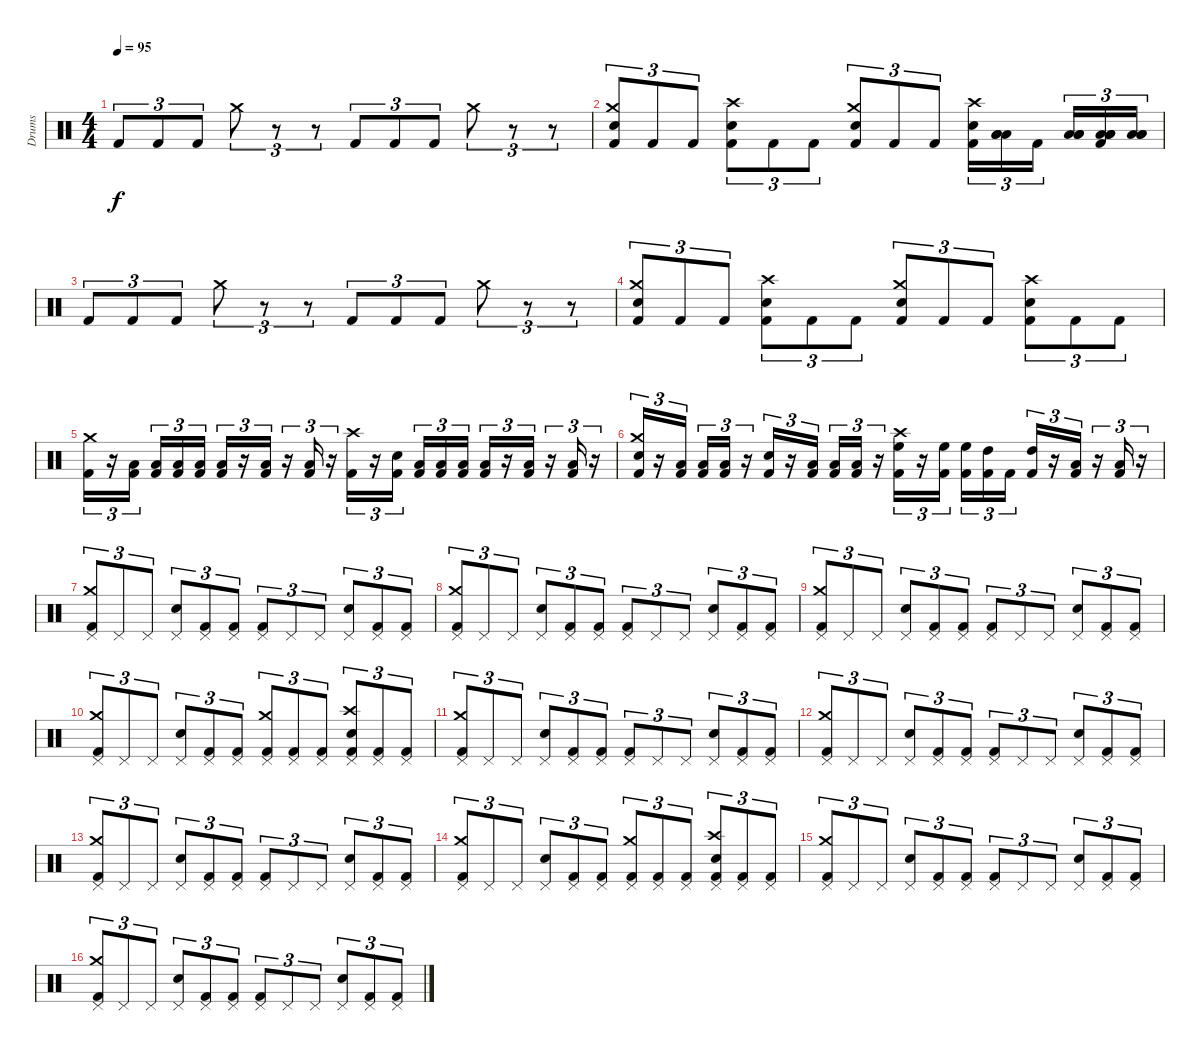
\track ("Drums" "Drums") {instrument percussion}
\staff {score}
\articulation defaults
\ts (4 4)
\tempo 95
\clef neutral
\ks c "Kick (hit) 2".8{tu (3 2) dy f} "Kick (hit) 2".8{tu (3 2)} "Kick (hit) 2".8{tu (3 2)} "Crash medium (hit)".8{tu (3 2)}
r.8{tu (3 2)} r.8{tu (3 2)} "Kick (hit) 2".8{tu (3 2)} "Kick (hit) 2".8{tu (3 2)} "Kick (hit) 2".8{tu (3 2)} "Crash medium (hit)".8{tu (3 2)} r.8{tu (3 2)} r.8{tu (3 2)} |
("Kick (hit) 2" "Crash medium (hit)" "Snare (hit) 2").8{tu (3 2)} "Kick (hit) 2".8{tu (3 2)} "Kick (hit) 2".8{tu (3 2)} ("Kick (hit) 2" "Crash high (hit)" "Snare (hit) 2").8{tu (3 2)} "Kick (hit) 2".8{tu (3 2)} "Kick (hit) 2".8{tu (3 2)} ("Kick (hit) 2" "Crash medium (hit)" "Snare (hit) 2").8{tu (3 2)} "Kick (hit) 2".8{tu (3 2)} "Kick (hit) 2".8{tu (3 2)} ("Kick (hit) 2" "Crash high (hit)" "Snare (hit) 2").16{tu (3 2)} ("Low Tom (hit)" "Low Tom (hit)" "Low Tom (hit)").16{tu (3 2)} "Kick (hit) 2".16{tu (3 2)} ("Low Tom (hit)" "Low Tom (hit)" "Low Tom (hit)").16{tu (3 2)} ("Kick (hit) 2" "Low Tom (hit)" "Low Tom (hit)" "Low Tom (hit)").16{tu (3 2)} ("Low Floor Tom (hit)" "Low Floor Tom (hit)" "Low Floor Tom (hit)").16{tu (3 2)} |
"Kick (hit) 2".8{tu (3 2)} "Kick (hit) 2".8{tu (3 2)} "Kick (hit) 2".8{tu (3 2)} "Crash medium (hit)".8{tu (3 2)} r.8{tu (3 2)} r.8{tu (3 2)} "Kick (hit) 2".8{tu (3 2)} "Kick (hit) 2".8{tu (3 2)} "Kick (hit) 2".8{tu (3 2)} "Crash medium (hit)".8{tu (3 2)} r.8{tu (3 2)} r.8{tu (3 2)} |
("Kick (hit) 2" "Crash medium (hit)" "Snare (hit) 2").8{tu (3 2)} "Kick (hit) 2".8{tu (3 2)} "Kick (hit) 2".8{tu (3 2)} ("Kick (hit) 2" "Crash high (hit)" "Snare (hit) 2").8{tu (3 2)} "Kick (hit) 2".8{tu (3 2)} "Kick (hit) 2".8{tu (3 2)} ("Kick (hit) 2" "Crash medium (hit)" "Snare (hit) 2").8{tu (3 2)} "Kick (hit) 2".8{tu (3 2)} "Kick (hit) 2".8{tu (3 2)} ("Kick (hit) 2" "Crash high (hit)" "Snare (hit) 2").8{tu (3 2)} "Kick (hit) 2".8{tu (3 2)} "Kick (hit) 2".8{tu (3 2)} |
("Kick (hit) 2" "Crash medium (hit)").16{tu (3 2)} r.16{tu (3 2)} ("Kick (hit) 2" "Low Tom (hit)").16{tu (3 2)} ("Kick (hit) 2" "Low Tom (hit)").16{tu (3 2)} ("Kick (hit) 2" "Low Tom (hit)").16{tu (3 2)} ("Kick (hit) 2" "Low Tom (hit)").16{tu (3 2)} ("Kick (hit) 2" "Low Floor Tom (hit)").16{tu (3 2)} r.16{tu (3 2)} ("Kick (hit) 2" "Low Floor Tom (hit)").16{tu (3 2)} r.16{tu (3 2)} ("Kick (hit) 2" "Low Floor Tom (hit)").16{tu (3 2)} r.16{tu (3 2)} ("Kick (hit) 2" "Crash high (hit)").16{tu (3 2)} r.16{tu (3 2)} ("Kick (hit) 2" "Snare (hit) 2").16{tu (3 2)} ("Kick (hit) 2" "Low Tom (hit)").16{tu (3 2)} ("Kick (hit) 2" "Low Tom (hit)").16{tu (3 2)} ("Kick (hit) 2" "Low Tom (hit)").16{tu (3 2)} ("Kick (hit) 2" "Low Floor Tom (hit)").16{tu (3 2)} r.16{tu (3 2)} ("Kick (hit) 2" "Low Floor Tom (hit)").16{tu (3 2)} r.16{tu (3 2)} ("Kick (hit) 2" "Low Floor Tom (hit)").16{tu (3 2)} r.16{tu (3 2)} |
("Kick (hit) 2" "Crash medium (hit)" "Snare (hit) 2").16{tu (3 2)} r.16{tu (3 2)} ("Kick (hit) 2" "Low Tom (hit)").16{tu (3 2)} ("Kick (hit) 2" "Low Tom (hit)").16{tu (3 2)} ("Kick (hit) 2" "Low Floor Tom (hit)").16{tu (3 2)} r.16{tu (3 2)} ("Kick (hit) 2" "Snare (hit) 2").16{tu (3 2)} r.16{tu (3 2)} ("Kick (hit) 2" "Low Tom (hit)").16{tu (3 2)} ("Kick (hit) 2" "Low Tom (hit)").16{tu (3 2)} ("Kick (hit) 2" "Low Floor Tom (hit)").16{tu (3 2)} r.16{tu (3 2)} ("Kick (hit) 2" "Crash high (hit)" "High Floor Tom (hit)").16{tu (3 2)} r.16{tu (3 2)} ("Kick (hit) 2" "High Floor Tom (hit)").16{tu (3 2)} ("Kick (hit) 2" "High Floor Tom (hit)").16{tu (3 2)} ("Kick (hit) 2" "High Tom (hit)").16{tu (3 2)} "Kick (hit) 2".16{tu (3 2)} ("Kick (hit) 2" "High Tom (hit)").16{tu (3 2)} r.16{tu (3 2)} ("Kick (hit) 2" "Low Floor Tom (hit)").16{tu (3 2)} r.16{tu (3 2)} ("Kick (hit) 2" "Low Floor Tom (hit)").16{tu (3 2)} r.16{tu (3 2)} |
("Kick (hit) 2" "Crash medium (hit)" "Pedal Hi-Hat (hit)").8{tu (3 2)} "Pedal Hi-Hat (hit)".8{tu (3 2)} "Pedal Hi-Hat (hit)".8{tu (3 2)} ("Snare (hit) 2" "Pedal Hi-Hat (hit)").8{tu (3 2)} ("Kick (hit) 2" "Pedal Hi-Hat (hit)").8{tu (3 2)} ("Kick (hit) 2" "Pedal Hi-Hat (hit)").8{tu (3 2)} ("Kick (hit) 2" "Pedal Hi-Hat (hit)").8{tu (3 2)} "Pedal Hi-Hat (hit)".8{tu (3 2)} "Pedal Hi-Hat (hit)".8{tu (3 2)} ("Snare (hit) 2" "Pedal Hi-Hat (hit)").8{tu (3 2)} ("Kick (hit) 2" "Pedal Hi-Hat (hit)").8{tu (3 2)} ("Kick (hit) 2" "Pedal Hi-Hat (hit)").8{tu (3 2)} |
("Kick (hit) 2" "Crash medium (hit)" "Pedal Hi-Hat (hit)").8{tu (3 2)} "Pedal Hi-Hat (hit)".8{tu (3 2)} "Pedal Hi-Hat (hit)".8{tu (3 2)} ("Snare (hit) 2" "Pedal Hi-Hat (hit)").8{tu (3 2)} ("Kick (hit) 2" "Pedal Hi-Hat (hit)").8{tu (3 2)} ("Kick (hit) 2" "Pedal Hi-Hat (hit)").8{tu (3 2)} ("Kick (hit) 2" "Pedal Hi-Hat (hit)").8{tu (3 2)} "Pedal Hi-Hat (hit)".8{tu (3 2)} "Pedal Hi-Hat (hit)".8{tu (3 2)} ("Snare (hit) 2" "Pedal Hi-Hat (hit)").8{tu (3 2)} ("Kick (hit) 2" "Pedal Hi-Hat (hit)").8{tu (3 2)} ("Kick (hit) 2" "Pedal Hi-Hat (hit)").8{tu (3 2)} |
("Kick (hit) 2" "Crash medium (hit)" "Pedal Hi-Hat (hit)").8{tu (3 2)} "Pedal Hi-Hat (hit)".8{tu (3 2)} "Pedal Hi-Hat (hit)".8{tu (3 2)} ("Snare (hit) 2" "Pedal Hi-Hat (hit)").8{tu (3 2)} ("Kick (hit) 2" "Pedal Hi-Hat (hit)").8{tu (3 2)} ("Kick (hit) 2" "Pedal Hi-Hat (hit)").8{tu (3 2)} ("Kick (hit) 2" "Pedal Hi-Hat (hit)").8{tu (3 2)} "Pedal Hi-Hat (hit)".8{tu (3 2)} "Pedal Hi-Hat (hit)".8{tu (3 2)} ("Snare (hit) 2" "Pedal Hi-Hat (hit)").8{tu (3 2)} ("Kick (hit) 2" "Pedal Hi-Hat (hit)").8{tu (3 2)} ("Kick (hit) 2" "Pedal Hi-Hat (hit)").8{tu (3 2)} |
("Kick (hit) 2" "Crash medium (hit)" "Pedal Hi-Hat (hit)").8{tu (3 2)} "Pedal Hi-Hat (hit)".8{tu (3 2)} "Pedal Hi-Hat (hit)".8{tu (3 2)} ("Snare (hit) 2" "Pedal Hi-Hat (hit)").8{tu (3 2)} ("Kick (hit) 2" "Pedal Hi-Hat (hit)").8{tu (3 2)} ("Kick (hit) 2" "Pedal Hi-Hat (hit)").8{tu (3 2)} ("Kick (hit) 2" "Crash medium (hit)" "Pedal Hi-Hat (hit)").8{tu (3 2)} ("Kick (hit) 2" "Pedal Hi-Hat (hit)").8{tu (3 2)} ("Kick (hit) 2" "Pedal Hi-Hat (hit)").8{tu (3 2)} ("Kick (hit) 2" "Crash high (hit)" "Snare (hit) 2" "Pedal Hi-Hat (hit)").8{tu (3 2)} ("Kick (hit) 2" "Pedal Hi-Hat (hit)").8{tu (3 2)} ("Kick (hit) 2" "Pedal Hi-Hat (hit)").8{tu (3 2)} |
("Kick (hit) 2" "Crash medium (hit)" "Pedal Hi-Hat (hit)").8{tu (3 2)} "Pedal Hi-Hat (hit)".8{tu (3 2)} "Pedal Hi-Hat (hit)".8{tu (3 2)} ("Snare (hit) 2" "Pedal Hi-Hat (hit)").8{tu (3 2)} ("Kick (hit) 2" "Pedal Hi-Hat (hit)").8{tu (3 2)} ("Kick (hit) 2" "Pedal Hi-Hat (hit)").8{tu (3 2)} ("Kick (hit) 2" "Pedal Hi-Hat (hit)").8{tu (3 2)} "Pedal Hi-Hat (hit)".8{tu (3 2)} "Pedal Hi-Hat (hit)".8{tu (3 2)} ("Snare (hit) 2" "Pedal Hi-Hat (hit)").8{tu (3 2)} ("Kick (hit) 2" "Pedal Hi-Hat (hit)").8{tu (3 2)} ("Kick (hit) 2" "Pedal Hi-Hat (hit)").8{tu (3 2)} |
("Kick (hit) 2" "Crash medium (hit)" "Pedal Hi-Hat (hit)").8{tu (3 2)} "Pedal Hi-Hat (hit)".8{tu (3 2)} "Pedal Hi-Hat (hit)".8{tu (3 2)} ("Snare (hit) 2" "Pedal Hi-Hat (hit)").8{tu (3 2)} ("Kick (hit) 2" "Pedal Hi-Hat (hit)").8{tu (3 2)} ("Kick (hit) 2" "Pedal Hi-Hat (hit)").8{tu (3 2)} ("Kick (hit) 2" "Pedal Hi-Hat (hit)").8{tu (3 2)} "Pedal Hi-Hat (hit)".8{tu (3 2)} "Pedal Hi-Hat (hit)".8{tu (3 2)} ("Snare (hit) 2" "Pedal Hi-Hat (hit)").8{tu (3 2)} ("Kick (hit) 2" "Pedal Hi-Hat (hit)").8{tu (3 2)} ("Kick (hit) 2" "Pedal Hi-Hat (hit)").8{tu (3 2)} |
("Kick (hit) 2" "Crash medium (hit)" "Pedal Hi-Hat (hit)").8{tu (3 2)} "Pedal Hi-Hat (hit)".8{tu (3 2)} "Pedal Hi-Hat (hit)".8{tu (3 2)} ("Snare (hit) 2" "Pedal Hi-Hat (hit)").8{tu (3 2)} ("Kick (hit) 2" "Pedal Hi-Hat (hit)").8{tu (3 2)} ("Kick (hit) 2" "Pedal Hi-Hat (hit)").8{tu (3 2)} ("Kick (hit) 2" "Pedal Hi-Hat (hit)").8{tu (3 2)} "Pedal Hi-Hat (hit)".8{tu (3 2)} "Pedal Hi-Hat (hit)".8{tu (3 2)} ("Snare (hit) 2" "Pedal Hi-Hat (hit)").8{tu (3 2)} ("Kick (hit) 2" "Pedal Hi-Hat (hit)").8{tu (3 2)} ("Kick (hit) 2" "Pedal Hi-Hat (hit)").8{tu (3 2)} |
("Kick (hit) 2" "Crash medium (hit)" "Pedal Hi-Hat (hit)").8{tu (3 2)} "Pedal Hi-Hat (hit)".8{tu (3 2)} "Pedal Hi-Hat (hit)".8{tu (3 2)} ("Snare (hit) 2" "Pedal Hi-Hat (hit)").8{tu (3 2)} ("Kick (hit) 2" "Pedal Hi-Hat (hit)").8{tu (3 2)} ("Kick (hit) 2" "Pedal Hi-Hat (hit)").8{tu (3 2)} ("Kick (hit) 2" "Crash medium (hit)" "Pedal Hi-Hat (hit)").8{tu (3 2)} ("Kick (hit) 2" "Pedal Hi-Hat (hit)").8{tu (3 2)} ("Kick (hit) 2" "Pedal Hi-Hat (hit)").8{tu (3 2)} ("Kick (hit) 2" "Crash high (hit)" "Snare (hit) 2" "Pedal Hi-Hat (hit)").8{tu (3 2)} ("Kick (hit) 2" "Pedal Hi-Hat (hit)").8{tu (3 2)} ("Kick (hit) 2" "Pedal Hi-Hat (hit)").8{tu (3 2)} |
("Kick (hit) 2" "Crash medium (hit)" "Pedal Hi-Hat (hit)").8{tu (3 2)} "Pedal Hi-Hat (hit)".8{tu (3 2)} "Pedal Hi-Hat (hit)".8{tu (3 2)} ("Snare (hit) 2" "Pedal Hi-Hat (hit)").8{tu (3 2)} ("Kick (hit) 2" "Pedal Hi-Hat (hit)").8{tu (3 2)} ("Kick (hit) 2" "Pedal Hi-Hat (hit)").8{tu (3 2)} ("Kick (hit) 2" "Pedal Hi-Hat (hit)").8{tu (3 2)} "Pedal Hi-Hat (hit)".8{tu (3 2)} "Pedal Hi-Hat (hit)".8{tu (3 2)} ("Snare (hit) 2" "Pedal Hi-Hat (hit)").8{tu (3 2)} ("Kick (hit) 2" "Pedal Hi-Hat (hit)").8{tu (3 2)} ("Kick (hit) 2" "Pedal Hi-Hat (hit)").8{tu (3 2)} |
("Kick (hit) 2" "Crash medium (hit)" "Pedal Hi-Hat (hit)").8{tu (3 2)} "Pedal Hi-Hat (hit)".8{tu (3 2)} "Pedal Hi-Hat (hit)".8{tu (3 2)} ("Snare (hit) 2" "Pedal Hi-Hat (hit)").8{tu (3 2)} ("Kick (hit) 2" "Pedal Hi-Hat (hit)").8{tu (3 2)} ("Kick (hit) 2" "Pedal Hi-Hat (hit)").8{tu (3 2)} ("Kick (hit) 2" "Pedal Hi-Hat (hit)").8{tu (3 2)} "Pedal Hi-Hat (hit)".8{tu (3 2)} "Pedal Hi-Hat (hit)".8{tu (3 2)} ("Snare (hit) 2" "Pedal Hi-Hat (hit)").8{tu (3 2)} ("Kick (hit) 2" "Pedal Hi-Hat (hit)").8{tu (3 2)} ("Kick (hit) 2" "Pedal Hi-Hat (hit)").8{tu (3 2)}
